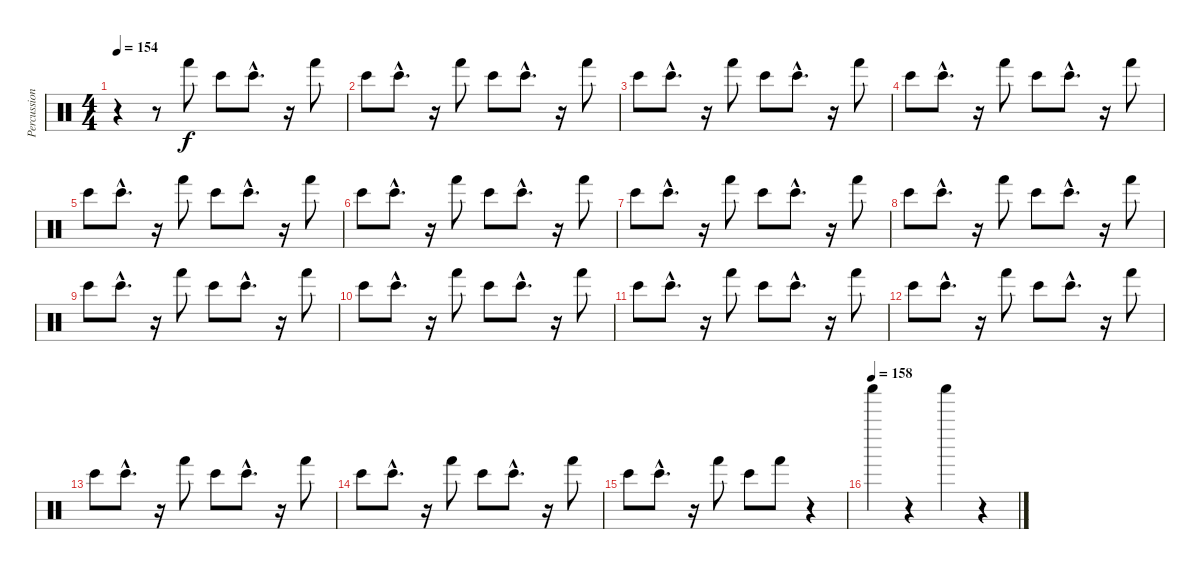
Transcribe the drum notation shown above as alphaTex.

\track ("Percussions" "Percussion") {instrument percussion}
\staff {score}
\articulation defaults
\ts (4 4)
\tempo 154
\clef neutral
\ks c
r.4{dy f} r.8 "Hand (hit)".8 "Bongo High (hit)".8 "Bongo High (hit)"{hac}.8{d} r.16 "Hand (hit)".8 |
"Bongo High (hit)".8 "Bongo High (hit)"{hac}.8{d} r.16 "Hand (hit)".8 "Bongo High (hit)".8 "Bongo High (hit)"{hac}.8{d} r.16 "Hand (hit)".8 |
"Bongo High (hit)".8 "Bongo High (hit)"{hac}.8{d} r.16 "Hand (hit)".8 "Bongo High (hit)".8 "Bongo High (hit)"{hac}.8{d} r.16 "Hand (hit)".8 |
"Bongo High (hit)".8 "Bongo High (hit)"{hac}.8{d} r.16 "Hand (hit)".8 "Bongo High (hit)".8 "Bongo High (hit)"{hac}.8{d} r.16 "Hand (hit)".8 |
"Bongo High (hit)".8 "Bongo High (hit)"{hac}.8{d} r.16 "Hand (hit)".8 "Bongo High (hit)".8 "Bongo High (hit)"{hac}.8{d} r.16 "Hand (hit)".8 |
"Bongo High (hit)".8 "Bongo High (hit)"{hac}.8{d} r.16 "Hand (hit)".8 "Bongo High (hit)".8 "Bongo High (hit)"{hac}.8{d} r.16 "Hand (hit)".8 |
"Bongo High (hit)".8 "Bongo High (hit)"{hac}.8{d} r.16 "Hand (hit)".8 "Bongo High (hit)".8 "Bongo High (hit)"{hac}.8{d} r.16 "Hand (hit)".8 |
"Bongo High (hit)".8 "Bongo High (hit)"{hac}.8{d} r.16 "Hand (hit)".8 "Bongo High (hit)".8 "Bongo High (hit)"{hac}.8{d} r.16 "Hand (hit)".8 |
"Bongo High (hit)".8 "Bongo High (hit)"{hac}.8{d} r.16 "Hand (hit)".8 "Bongo High (hit)".8 "Bongo High (hit)"{hac}.8{d} r.16 "Hand (hit)".8 |
"Bongo High (hit)".8 "Bongo High (hit)"{hac}.8{d} r.16 "Hand (hit)".8 "Bongo High (hit)".8 "Bongo High (hit)"{hac}.8{d} r.16 "Hand (hit)".8 |
"Bongo High (hit)".8 "Bongo High (hit)"{hac}.8{d} r.16 "Hand (hit)".8 "Bongo High (hit)".8 "Bongo High (hit)"{hac}.8{d} r.16 "Hand (hit)".8 |
"Bongo High (hit)".8 "Bongo High (hit)"{hac}.8{d} r.16 "Hand (hit)".8 "Bongo High (hit)".8 "Bongo High (hit)"{hac}.8{d} r.16 "Hand (hit)".8 |
"Bongo High (hit)".8 "Bongo High (hit)"{hac}.8{d} r.16 "Hand (hit)".8 "Bongo High (hit)".8 "Bongo High (hit)"{hac}.8{d} r.16 "Hand (hit)".8 |
"Bongo High (hit)".8 "Bongo High (hit)"{hac}.8{d} r.16 "Hand (hit)".8 "Bongo High (hit)".8 "Bongo High (hit)"{hac}.8{d} r.16 "Hand (hit)".8 |
"Bongo High (hit)".8 "Bongo High (hit)"{hac}.8{d} r.16 "Hand (hit)".8 "Bongo High (hit)".8 "Hand (hit)".8 r.4 |
\tempo (158)
"Shaker (hit)".4 r.4 "Shaker (hit)".4 r.4
